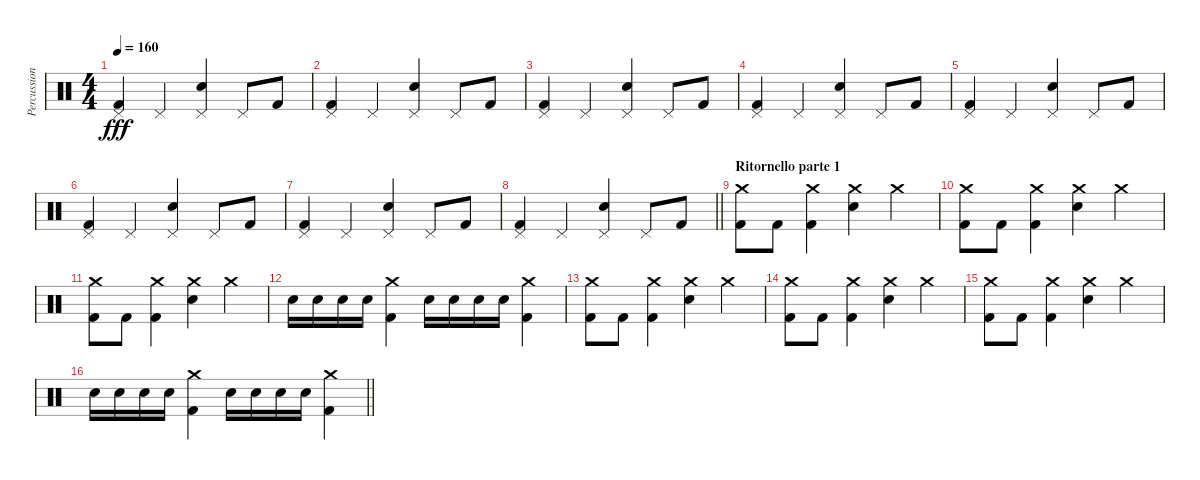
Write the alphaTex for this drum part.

\track ("Percussioni" "Percussion") {instrument percussion}
\staff {score}
\articulation defaults
\ts (4 4)
\tempo 160
\clef neutral
\ks c
("Pedal Hi-Hat (hit)" "Kick (hit) 2").4{dy fff} "Pedal Hi-Hat (hit)".4 ("Pedal Hi-Hat (hit)" "Snare (hit) 2").4 "Pedal Hi-Hat (hit)".8 "Kick (hit) 2".8 |
("Pedal Hi-Hat (hit)" "Kick (hit) 2").4 "Pedal Hi-Hat (hit)".4 ("Pedal Hi-Hat (hit)" "Snare (hit) 2").4 "Pedal Hi-Hat (hit)".8 "Kick (hit) 2".8 |
("Pedal Hi-Hat (hit)" "Kick (hit) 2").4 "Pedal Hi-Hat (hit)".4 ("Pedal Hi-Hat (hit)" "Snare (hit) 2").4 "Pedal Hi-Hat (hit)".8 "Kick (hit) 2".8 |
("Pedal Hi-Hat (hit)" "Kick (hit) 2").4 "Pedal Hi-Hat (hit)".4 ("Pedal Hi-Hat (hit)" "Snare (hit) 2").4 "Pedal Hi-Hat (hit)".8 "Kick (hit) 2".8 |
("Pedal Hi-Hat (hit)" "Kick (hit) 2").4 "Pedal Hi-Hat (hit)".4 ("Pedal Hi-Hat (hit)" "Snare (hit) 2").4 "Pedal Hi-Hat (hit)".8 "Kick (hit) 2".8 |
("Pedal Hi-Hat (hit)" "Kick (hit) 2").4 "Pedal Hi-Hat (hit)".4 ("Pedal Hi-Hat (hit)" "Snare (hit) 2").4 "Pedal Hi-Hat (hit)".8 "Kick (hit) 2".8 |
("Pedal Hi-Hat (hit)" "Kick (hit) 2").4 "Pedal Hi-Hat (hit)".4 ("Pedal Hi-Hat (hit)" "Snare (hit) 2").4 "Pedal Hi-Hat (hit)".8 "Kick (hit) 2".8 |
\barLineRight lightlight
("Pedal Hi-Hat (hit)" "Kick (hit) 2").4 "Pedal Hi-Hat (hit)".4 ("Pedal Hi-Hat (hit)" "Snare (hit) 2").4 "Pedal Hi-Hat (hit)".8 "Kick (hit) 2".8 |
\section ("" "Ritornello parte 1")
("Crash medium (hit)" "Kick (hit) 2").8 "Kick (hit) 2".8 ("Crash medium (hit)" "Kick (hit) 2").4 ("Crash medium (hit)" "Snare (hit) 2").4 "Crash medium (hit)".4 |
("Crash medium (hit)" "Kick (hit) 2").8 "Kick (hit) 2".8 ("Crash medium (hit)" "Kick (hit) 2").4 ("Crash medium (hit)" "Snare (hit) 2").4 "Crash medium (hit)".4 |
("Crash medium (hit)" "Kick (hit) 2").8 "Kick (hit) 2".8 ("Crash medium (hit)" "Kick (hit) 2").4 ("Crash medium (hit)" "Snare (hit) 2").4 "Crash medium (hit)".4 |
"Snare (hit) 2".16 "Snare (hit) 2".16 "Snare (hit) 2".16 "Snare (hit) 2".16 ("Crash medium (hit)" "Kick (hit) 2").4 "Snare (hit) 2".16 "Snare (hit) 2".16 "Snare (hit) 2".16 "Snare (hit) 2".16 ("Crash medium (hit)" "Kick (hit) 2").4 |
("Crash medium (hit)" "Kick (hit) 2").8 "Kick (hit) 2".8 ("Crash medium (hit)" "Kick (hit) 2").4 ("Crash medium (hit)" "Snare (hit) 2").4 "Crash medium (hit)".4 |
("Crash medium (hit)" "Kick (hit) 2").8 "Kick (hit) 2".8 ("Crash medium (hit)" "Kick (hit) 2").4 ("Crash medium (hit)" "Snare (hit) 2").4 "Crash medium (hit)".4 |
("Crash medium (hit)" "Kick (hit) 2").8 "Kick (hit) 2".8 ("Crash medium (hit)" "Kick (hit) 2").4 ("Crash medium (hit)" "Snare (hit) 2").4 "Crash medium (hit)".4 |
\barLineRight lightlight "Snare (hit) 2".16 "Snare (hit) 2".16 "Snare (hit) 2".16 "Snare (hit) 2".16
("Crash medium (hit)" "Kick (hit) 2").4 "Snare (hit) 2".16 "Snare (hit) 2".16 "Snare (hit) 2".16 "Snare (hit) 2".16 ("Crash medium (hit)" "Kick (hit) 2").4
